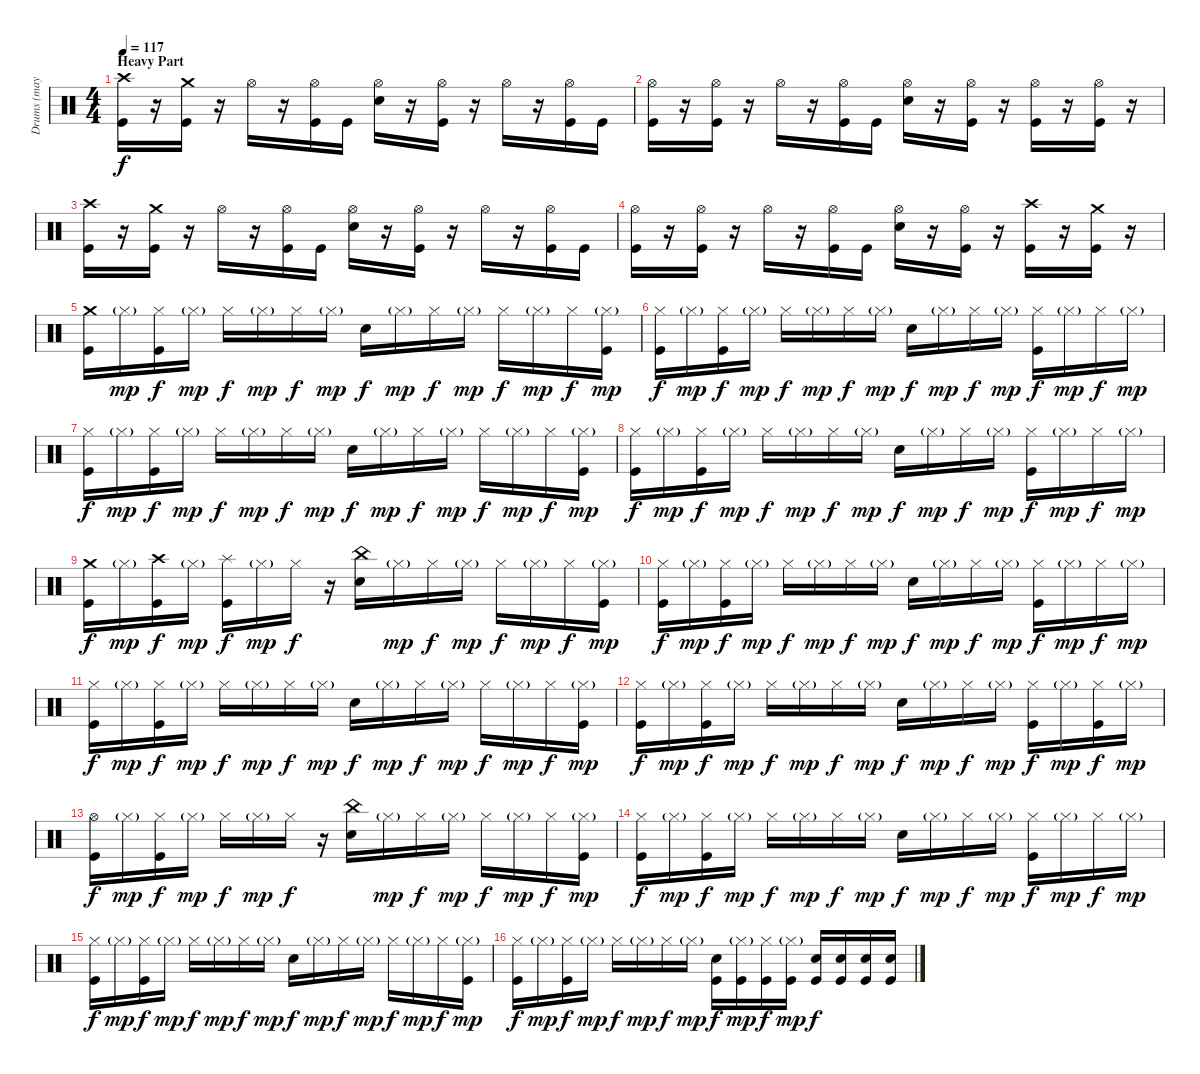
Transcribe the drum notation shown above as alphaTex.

\track ("Drums (maybe electrical, too)" "Drums (may") {instrument percussion}
\staff {score}
\articulation defaults
\ts (4 4)
\section ("" "Heavy Part")
\tempo 117
\clef neutral
\ks c
("Crash high (hit)" "Kick (hit)").16{dy f} r.16 ("Crash medium (hit)" "Kick (hit)").16 r.16 "Hi-Hat (open)".16 r.16 ("Hi-Hat (open)" "Kick (hit)").16 "Kick (hit)".16 ("Hi-Hat (open)" "Electric Snare (hit)").16 r.16 ("Hi-Hat (open)" "Kick (hit)").16 r.16 "Hi-Hat (open)".16 r.16 ("Hi-Hat (open)" "Kick (hit)").16 "Kick (hit)".16 |
("Hi-Hat (open)" "Kick (hit)").16 r.16 ("Hi-Hat (open)" "Kick (hit)").16 r.16 "Hi-Hat (open)".16 r.16 ("Hi-Hat (open)" "Kick (hit)").16 "Kick (hit)".16 ("Hi-Hat (open)" "Electric Snare (hit)").16 r.16 ("Hi-Hat (open)" "Kick (hit)").16 r.16 ("Hi-Hat (open)" "Kick (hit)").16 r.16 ("Hi-Hat (open)" "Kick (hit)").16 r.16 |
("Crash high (hit)" "Kick (hit)").16 r.16 ("Crash medium (hit)" "Kick (hit)").16 r.16 "Hi-Hat (open)".16 r.16 ("Hi-Hat (open)" "Kick (hit)").16 "Kick (hit)".16 ("Hi-Hat (open)" "Electric Snare (hit)").16 r.16 ("Hi-Hat (open)" "Kick (hit)").16 r.16 "Hi-Hat (open)".16 r.16 ("Hi-Hat (open)" "Kick (hit)").16 "Kick (hit)".16 |
("Hi-Hat (open)" "Kick (hit)").16 r.16 ("Hi-Hat (open)" "Kick (hit)").16 r.16 "Hi-Hat (open)".16 r.16 ("Hi-Hat (open)" "Kick (hit)").16 "Kick (hit)".16 ("Hi-Hat (open)" "Electric Snare (hit)").16 r.16 ("Hi-Hat (open)" "Kick (hit)").16 r.16 ("Crash high (hit)" "Kick (hit)").16 r.16 ("Crash medium (hit)" "Kick (hit)").16 r.16 |
\section ("" "")
("Crash medium (hit)" "Kick (hit)").16 "Hi-Hat (closed)"{g}.16{dy mp} ("Hi-Hat (closed)" "Kick (hit)").16{dy f} "Hi-Hat (closed)"{g}.16{dy mp} "Hi-Hat (closed)".16{dy f} "Hi-Hat (closed)"{g}.16{dy mp} "Hi-Hat (closed)".16{dy f} "Hi-Hat (closed)"{g}.16{dy mp} "Electric Snare (hit)".16{dy f} "Hi-Hat (closed)"{g}.16{dy mp} "Hi-Hat (closed)".16{dy f} "Hi-Hat (closed)"{g}.16{dy mp} "Hi-Hat (closed)".16{dy f} "Hi-Hat (closed)"{g}.16{dy mp} "Hi-Hat (closed)".16{dy f} ("Hi-Hat (closed)"{g} "Kick (hit)").16{dy mp} |
("Hi-Hat (closed)" "Kick (hit)").16{dy f} "Hi-Hat (closed)"{g}.16{dy mp} ("Hi-Hat (closed)" "Kick (hit)").16{dy f} "Hi-Hat (closed)"{g}.16{dy mp} "Hi-Hat (closed)".16{dy f} "Hi-Hat (closed)"{g}.16{dy mp} "Hi-Hat (closed)".16{dy f} "Hi-Hat (closed)"{g}.16{dy mp} "Electric Snare (hit)".16{dy f} "Hi-Hat (closed)"{g}.16{dy mp} "Hi-Hat (closed)".16{dy f} "Hi-Hat (closed)"{g}.16{dy mp} ("Hi-Hat (closed)" "Kick (hit)").16{dy f} "Hi-Hat (closed)"{g}.16{dy mp} "Hi-Hat (closed)".16{dy f} "Hi-Hat (closed)"{g}.16{dy mp} |
("Hi-Hat (closed)" "Kick (hit)").16{dy f} "Hi-Hat (closed)"{g}.16{dy mp} ("Hi-Hat (closed)" "Kick (hit)").16{dy f} "Hi-Hat (closed)"{g}.16{dy mp} "Hi-Hat (closed)".16{dy f} "Hi-Hat (closed)"{g}.16{dy mp} "Hi-Hat (closed)".16{dy f} "Hi-Hat (closed)"{g}.16{dy mp} "Electric Snare (hit)".16{dy f} "Hi-Hat (closed)"{g}.16{dy mp} "Hi-Hat (closed)".16{dy f} "Hi-Hat (closed)"{g}.16{dy mp} "Hi-Hat (closed)".16{dy f} "Hi-Hat (closed)"{g}.16{dy mp} "Hi-Hat (closed)".16{dy f} ("Hi-Hat (closed)"{g} "Kick (hit)").16{dy mp} |
("Hi-Hat (closed)" "Kick (hit)").16{dy f} "Hi-Hat (closed)"{g}.16{dy mp} ("Hi-Hat (closed)" "Kick (hit)").16{dy f} "Hi-Hat (closed)"{g}.16{dy mp} "Hi-Hat (closed)".16{dy f} "Hi-Hat (closed)"{g}.16{dy mp} "Hi-Hat (closed)".16{dy f} "Hi-Hat (closed)"{g}.16{dy mp} "Electric Snare (hit)".16{dy f} "Hi-Hat (closed)"{g}.16{dy mp} "Hi-Hat (closed)".16{dy f} "Hi-Hat (closed)"{g}.16{dy mp} ("Hi-Hat (closed)" "Kick (hit)").16{dy f} "Hi-Hat (closed)"{g}.16{dy mp} "Hi-Hat (closed)".16{dy f} "Hi-Hat (closed)"{g}.16{dy mp} |
("Crash medium (hit)" "Kick (hit)").16{dy f} "Hi-Hat (closed)"{g}.16{dy mp} ("Crash high (hit)" "Kick (hit)").16{dy f} "Hi-Hat (closed)"{g}.16{dy mp} ("Splash (hit)" "Kick (hit)").16{dy f} "Hi-Hat (closed)"{g}.16{dy mp} "Hi-Hat (closed)".16{dy f} r.16 ("China (hit)" "Electric Snare (hit)").16 "Hi-Hat (closed)"{g}.16{dy mp} "Hi-Hat (closed)".16{dy f} "Hi-Hat (closed)"{g}.16{dy mp} "Hi-Hat (closed)".16{dy f} "Hi-Hat (closed)"{g}.16{dy mp} "Hi-Hat (closed)".16{dy f} ("Hi-Hat (closed)"{g} "Kick (hit)").16{dy mp} |
("Hi-Hat (closed)" "Kick (hit)").16{dy f} "Hi-Hat (closed)"{g}.16{dy mp} ("Hi-Hat (closed)" "Kick (hit)").16{dy f} "Hi-Hat (closed)"{g}.16{dy mp} "Hi-Hat (closed)".16{dy f} "Hi-Hat (closed)"{g}.16{dy mp} "Hi-Hat (closed)".16{dy f} "Hi-Hat (closed)"{g}.16{dy mp} "Electric Snare (hit)".16{dy f} "Hi-Hat (closed)"{g}.16{dy mp} "Hi-Hat (closed)".16{dy f} "Hi-Hat (closed)"{g}.16{dy mp} ("Hi-Hat (closed)" "Kick (hit)").16{dy f} "Hi-Hat (closed)"{g}.16{dy mp} "Hi-Hat (closed)".16{dy f} "Hi-Hat (closed)"{g}.16{dy mp} |
("Hi-Hat (closed)" "Kick (hit)").16{dy f} "Hi-Hat (closed)"{g}.16{dy mp} ("Hi-Hat (closed)" "Kick (hit)").16{dy f} "Hi-Hat (closed)"{g}.16{dy mp} "Hi-Hat (closed)".16{dy f} "Hi-Hat (closed)"{g}.16{dy mp} "Hi-Hat (closed)".16{dy f} "Hi-Hat (closed)"{g}.16{dy mp} "Electric Snare (hit)".16{dy f} "Hi-Hat (closed)"{g}.16{dy mp} "Hi-Hat (closed)".16{dy f} "Hi-Hat (closed)"{g}.16{dy mp} "Hi-Hat (closed)".16{dy f} "Hi-Hat (closed)"{g}.16{dy mp} "Hi-Hat (closed)".16{dy f} ("Hi-Hat (closed)"{g} "Kick (hit)").16{dy mp} |
("Hi-Hat (closed)" "Kick (hit)").16{dy f} "Hi-Hat (closed)"{g}.16{dy mp} ("Hi-Hat (closed)" "Kick (hit)").16{dy f} "Hi-Hat (closed)"{g}.16{dy mp} "Hi-Hat (closed)".16{dy f} "Hi-Hat (closed)"{g}.16{dy mp} "Hi-Hat (closed)".16{dy f} "Hi-Hat (closed)"{g}.16{dy mp} "Electric Snare (hit)".16{dy f} "Hi-Hat (closed)"{g}.16{dy mp} "Hi-Hat (closed)".16{dy f} "Hi-Hat (closed)"{g}.16{dy mp} ("Hi-Hat (closed)" "Kick (hit)").16{dy f} "Hi-Hat (closed)"{g}.16{dy mp} ("Hi-Hat (closed)" "Kick (hit)").16{dy f} "Hi-Hat (closed)"{g}.16{dy mp} |
("Hi-Hat (open)" "Kick (hit)").16{dy f} "Hi-Hat (closed)"{g}.16{dy mp} ("Hi-Hat (closed)" "Kick (hit)").16{dy f} "Hi-Hat (closed)"{g}.16{dy mp} "Hi-Hat (closed)".16{dy f} "Hi-Hat (closed)"{g}.16{dy mp} "Hi-Hat (closed)".16{dy f} r.16 ("China (hit)" "Electric Snare (hit)").16 "Hi-Hat (closed)"{g}.16{dy mp} "Hi-Hat (closed)".16{dy f} "Hi-Hat (closed)"{g}.16{dy mp} "Hi-Hat (closed)".16{dy f} "Hi-Hat (closed)"{g}.16{dy mp} "Hi-Hat (closed)".16{dy f} ("Hi-Hat (closed)"{g} "Kick (hit)").16{dy mp} |
("Hi-Hat (closed)" "Kick (hit)").16{dy f} "Hi-Hat (closed)"{g}.16{dy mp} ("Hi-Hat (closed)" "Kick (hit)").16{dy f} "Hi-Hat (closed)"{g}.16{dy mp} "Hi-Hat (closed)".16{dy f} "Hi-Hat (closed)"{g}.16{dy mp} "Hi-Hat (closed)".16{dy f} "Hi-Hat (closed)"{g}.16{dy mp} "Electric Snare (hit)".16{dy f} "Hi-Hat (closed)"{g}.16{dy mp} "Hi-Hat (closed)".16{dy f} "Hi-Hat (closed)"{g}.16{dy mp} ("Hi-Hat (closed)" "Kick (hit)").16{dy f} "Hi-Hat (closed)"{g}.16{dy mp} "Hi-Hat (closed)".16{dy f} "Hi-Hat (closed)"{g}.16{dy mp} |
("Hi-Hat (closed)" "Kick (hit)").16{dy f} "Hi-Hat (closed)"{g}.16{dy mp} ("Hi-Hat (closed)" "Kick (hit)").16{dy f} "Hi-Hat (closed)"{g}.16{dy mp} "Hi-Hat (closed)".16{dy f} "Hi-Hat (closed)"{g}.16{dy mp} "Hi-Hat (closed)".16{dy f} "Hi-Hat (closed)"{g}.16{dy mp} "Electric Snare (hit)".16{dy f} "Hi-Hat (closed)"{g}.16{dy mp} "Hi-Hat (closed)".16{dy f} "Hi-Hat (closed)"{g}.16{dy mp} "Hi-Hat (closed)".16{dy f} "Hi-Hat (closed)"{g}.16{dy mp} "Hi-Hat (closed)".16{dy f} ("Hi-Hat (closed)"{g} "Kick (hit)").16{dy mp} |
("Hi-Hat (closed)" "Kick (hit)").16{dy f} "Hi-Hat (closed)"{g}.16{dy mp} ("Hi-Hat (closed)" "Kick (hit)").16{dy f} "Hi-Hat (closed)"{g}.16{dy mp} "Hi-Hat (closed)".16{dy f} "Hi-Hat (closed)"{g}.16{dy mp} "Hi-Hat (closed)".16{dy f} "Hi-Hat (closed)"{g}.16{dy mp} ("Electric Snare (hit)" "Kick (hit)").16{dy f} ("Hi-Hat (closed)"{g} "Kick (hit)").16{dy mp} ("Hi-Hat (closed)" "Kick (hit)").16{dy f} ("Hi-Hat (closed)"{g} "Kick (hit)").16{dy mp} ("Electric Snare (hit)" "Kick (hit)").16{dy f} ("Electric Snare (hit)" "Kick (hit)").16 ("Electric Snare (hit)" "Kick (hit)").16 ("Electric Snare (hit)" "Kick (hit)").16
